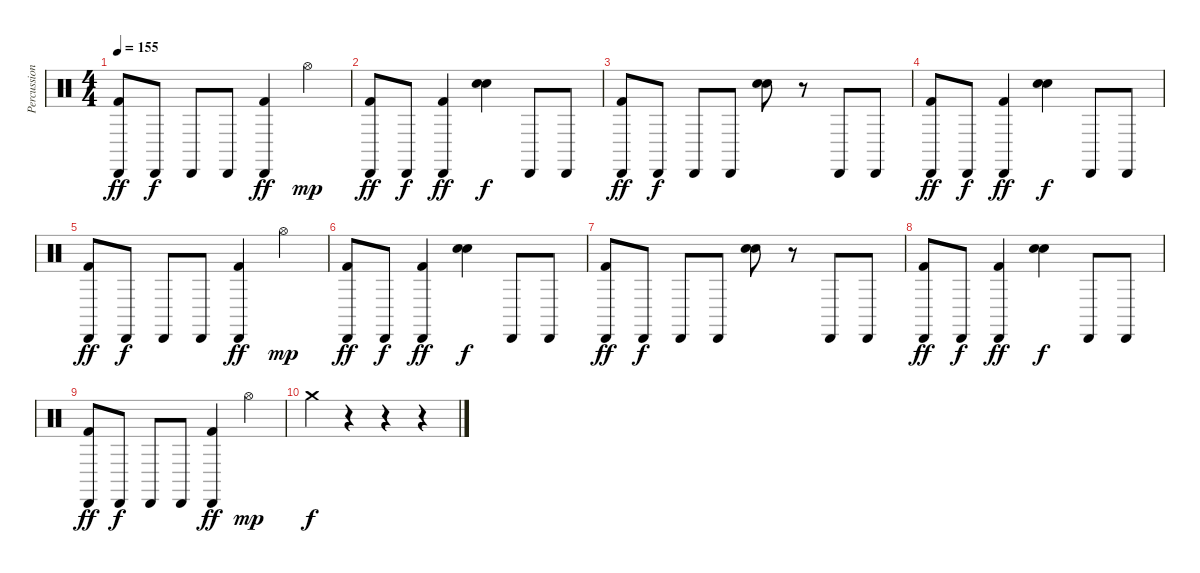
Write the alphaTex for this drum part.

\track ("Percussion" "Percussion") {instrument percussion}
\staff {score}
\articulation defaults
\ts (4 4)
\tempo 155
\clef neutral
\ks c
("Cabasa (hit)" "Kick (hit) 2").8{dy ff} "Cabasa (hit)".8{dy f} "Cabasa (hit)".8 "Cabasa (hit)".8 ("Cabasa (hit)" "Kick (hit) 2").4{dy ff} "Hi-Hat (open)".4{dy mp} |
("Cabasa (hit)" "Kick (hit) 2").8{dy ff} "Cabasa (hit)".8{dy f} ("Cabasa (hit)" "Kick (hit) 2").4{dy ff} ("Electric Snare (hit)" "Hand Clap (hit)").4{dy f} "Cabasa (hit)".8 "Cabasa (hit)".8 |
("Cabasa (hit)" "Kick (hit) 2").8{dy ff} "Cabasa (hit)".8{dy f} "Cabasa (hit)".8 "Cabasa (hit)".8 ("Electric Snare (hit)" "Hand Clap (hit)").8 r.8 "Cabasa (hit)".8 "Cabasa (hit)".8 |
("Cabasa (hit)" "Kick (hit) 2").8{dy ff} "Cabasa (hit)".8{dy f} ("Cabasa (hit)" "Kick (hit) 2").4{dy ff} ("Electric Snare (hit)" "Hand Clap (hit)").4{dy f} "Cabasa (hit)".8 "Cabasa (hit)".8 |
("Cabasa (hit)" "Kick (hit) 2").8{dy ff} "Cabasa (hit)".8{dy f} "Cabasa (hit)".8 "Cabasa (hit)".8 ("Cabasa (hit)" "Kick (hit) 2").4{dy ff} "Hi-Hat (open)".4{dy mp} |
("Cabasa (hit)" "Kick (hit) 2").8{dy ff} "Cabasa (hit)".8{dy f} ("Cabasa (hit)" "Kick (hit) 2").4{dy ff} ("Electric Snare (hit)" "Hand Clap (hit)").4{dy f} "Cabasa (hit)".8 "Cabasa (hit)".8 |
("Cabasa (hit)" "Kick (hit) 2").8{dy ff} "Cabasa (hit)".8{dy f} "Cabasa (hit)".8 "Cabasa (hit)".8 ("Electric Snare (hit)" "Hand Clap (hit)").8 r.8 "Cabasa (hit)".8 "Cabasa (hit)".8 |
("Cabasa (hit)" "Kick (hit) 2").8{dy ff} "Cabasa (hit)".8{dy f} ("Cabasa (hit)" "Kick (hit) 2").4{dy ff} ("Electric Snare (hit)" "Hand Clap (hit)").4{dy f} "Cabasa (hit)".8 "Cabasa (hit)".8 |
("Cabasa (hit)" "Kick (hit) 2").8{dy ff} "Cabasa (hit)".8{dy f} "Cabasa (hit)".8 "Cabasa (hit)".8 ("Cabasa (hit)" "Kick (hit) 2").4{dy ff} "Hi-Hat (open)".4{dy mp} |
"Crash medium (hit)".4{dy f} r.4 r.4 r.4
